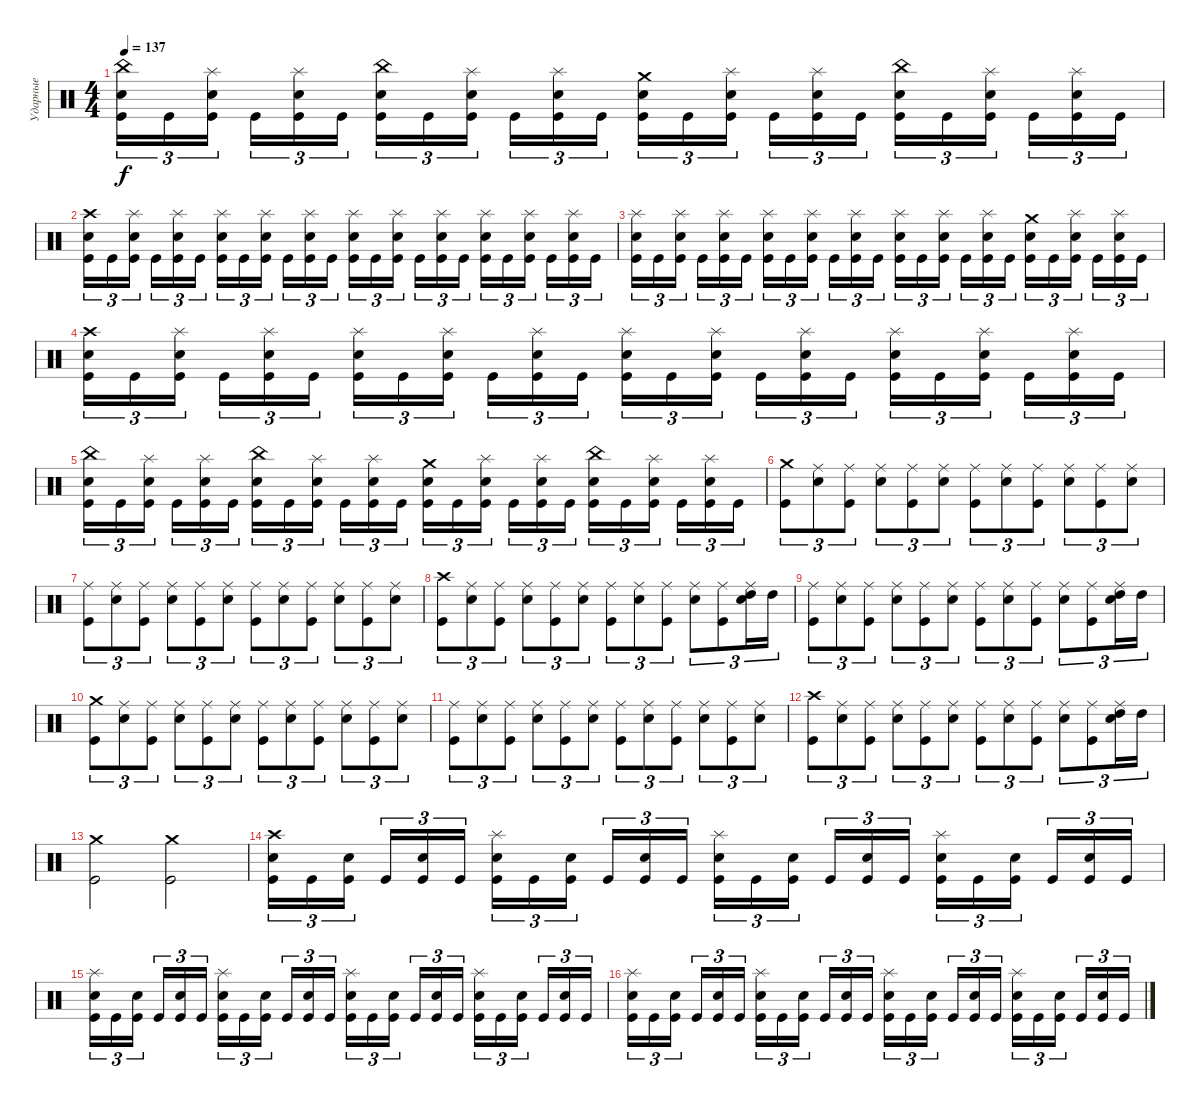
\track ("Ударные" "Ударные") {instrument percussion}
\staff {score}
\articulation defaults
\ts (4 4)
\tempo 137
\clef neutral
\ks c
("China (hit)" "Electric Snare (hit)" "Kick (hit)").16{tu (3 2) dy f} "Kick (hit)".16{tu (3 2)} ("Splash (hit)" "Electric Snare (hit)" "Kick (hit)").16{tu (3 2) beam splitsecondary} "Kick (hit)".16{tu (3 2)} ("Splash (hit)" "Electric Snare (hit)" "Kick (hit)").16{tu (3 2)} "Kick (hit)".16{tu (3 2)} ("China (hit)" "Electric Snare (hit)" "Kick (hit)").16{tu (3 2)} "Kick (hit)".16{tu (3 2)} ("Splash (hit)" "Electric Snare (hit)" "Kick (hit)").16{tu (3 2) beam splitsecondary} "Kick (hit)".16{tu (3 2)} ("Splash (hit)" "Electric Snare (hit)" "Kick (hit)").16{tu (3 2)} "Kick (hit)".16{tu (3 2)} ("Crash medium (hit)" "Electric Snare (hit)" "Kick (hit)").16{tu (3 2)} "Kick (hit)".16{tu (3 2)} ("Splash (hit)" "Electric Snare (hit)" "Kick (hit)").16{tu (3 2) beam splitsecondary} "Kick (hit)".16{tu (3 2)} ("Splash (hit)" "Electric Snare (hit)" "Kick (hit)").16{tu (3 2)} "Kick (hit)".16{tu (3 2)} ("China (hit)" "Electric Snare (hit)" "Kick (hit)").16{tu (3 2)} "Kick (hit)".16{tu (3 2)} ("Splash (hit)" "Electric Snare (hit)" "Kick (hit)").16{tu (3 2) beam splitsecondary} "Kick (hit)".16{tu (3 2)} ("Splash (hit)" "Electric Snare (hit)" "Kick (hit)").16{tu (3 2)} "Kick (hit)".16{tu (3 2)} |
("Crash high (hit)" "Electric Snare (hit)" "Kick (hit)").16{tu (3 2)} "Kick (hit)".16{tu (3 2)} ("Splash (hit)" "Electric Snare (hit)" "Kick (hit)").16{tu (3 2) beam splitsecondary} "Kick (hit)".16{tu (3 2)} ("Splash (hit)" "Electric Snare (hit)" "Kick (hit)").16{tu (3 2)} "Kick (hit)".16{tu (3 2)} ("Splash (hit)" "Electric Snare (hit)" "Kick (hit)").16{tu (3 2)} "Kick (hit)".16{tu (3 2)} ("Splash (hit)" "Electric Snare (hit)" "Kick (hit)").16{tu (3 2) beam splitsecondary} "Kick (hit)".16{tu (3 2)} ("Splash (hit)" "Electric Snare (hit)" "Kick (hit)").16{tu (3 2)} "Kick (hit)".16{tu (3 2)} ("Splash (hit)" "Electric Snare (hit)" "Kick (hit)").16{tu (3 2)} "Kick (hit)".16{tu (3 2)} ("Splash (hit)" "Electric Snare (hit)" "Kick (hit)").16{tu (3 2) beam splitsecondary} "Kick (hit)".16{tu (3 2)} ("Splash (hit)" "Electric Snare (hit)" "Kick (hit)").16{tu (3 2)} "Kick (hit)".16{tu (3 2)} ("Splash (hit)" "Electric Snare (hit)" "Kick (hit)").16{tu (3 2)} "Kick (hit)".16{tu (3 2)} ("Splash (hit)" "Electric Snare (hit)" "Kick (hit)").16{tu (3 2) beam splitsecondary} "Kick (hit)".16{tu (3 2)} ("Splash (hit)" "Electric Snare (hit)" "Kick (hit)").16{tu (3 2)} "Kick (hit)".16{tu (3 2)} |
("Splash (hit)" "Electric Snare (hit)" "Kick (hit)").16{tu (3 2)} "Kick (hit)".16{tu (3 2)} ("Splash (hit)" "Electric Snare (hit)" "Kick (hit)").16{tu (3 2) beam splitsecondary} "Kick (hit)".16{tu (3 2)} ("Splash (hit)" "Electric Snare (hit)" "Kick (hit)").16{tu (3 2)} "Kick (hit)".16{tu (3 2)} ("Splash (hit)" "Electric Snare (hit)" "Kick (hit)").16{tu (3 2)} "Kick (hit)".16{tu (3 2)} ("Splash (hit)" "Electric Snare (hit)" "Kick (hit)").16{tu (3 2) beam splitsecondary} "Kick (hit)".16{tu (3 2)} ("Splash (hit)" "Electric Snare (hit)" "Kick (hit)").16{tu (3 2)} "Kick (hit)".16{tu (3 2)} ("Splash (hit)" "Electric Snare (hit)" "Kick (hit)").16{tu (3 2)} "Kick (hit)".16{tu (3 2)} ("Splash (hit)" "Electric Snare (hit)" "Kick (hit)").16{tu (3 2) beam splitsecondary} "Kick (hit)".16{tu (3 2)} ("Splash (hit)" "Electric Snare (hit)" "Kick (hit)").16{tu (3 2)} "Kick (hit)".16{tu (3 2)} ("Crash medium (hit)" "Electric Snare (hit)" "Kick (hit)").16{tu (3 2)} "Kick (hit)".16{tu (3 2)} ("Splash (hit)" "Electric Snare (hit)" "Kick (hit)").16{tu (3 2) beam splitsecondary} "Kick (hit)".16{tu (3 2)} ("Splash (hit)" "Electric Snare (hit)" "Kick (hit)").16{tu (3 2)} "Kick (hit)".16{tu (3 2)} |
("Crash high (hit)" "Electric Snare (hit)" "Kick (hit)").16{tu (3 2)} "Kick (hit)".16{tu (3 2)} ("Splash (hit)" "Electric Snare (hit)" "Kick (hit)").16{tu (3 2) beam splitsecondary} "Kick (hit)".16{tu (3 2)} ("Splash (hit)" "Electric Snare (hit)" "Kick (hit)").16{tu (3 2)} "Kick (hit)".16{tu (3 2)} ("Splash (hit)" "Electric Snare (hit)" "Kick (hit)").16{tu (3 2)} "Kick (hit)".16{tu (3 2)} ("Splash (hit)" "Electric Snare (hit)" "Kick (hit)").16{tu (3 2) beam splitsecondary} "Kick (hit)".16{tu (3 2)} ("Splash (hit)" "Electric Snare (hit)" "Kick (hit)").16{tu (3 2)} "Kick (hit)".16{tu (3 2)} ("Splash (hit)" "Electric Snare (hit)" "Kick (hit)").16{tu (3 2)} "Kick (hit)".16{tu (3 2)} ("Splash (hit)" "Electric Snare (hit)" "Kick (hit)").16{tu (3 2) beam splitsecondary} "Kick (hit)".16{tu (3 2)} ("Splash (hit)" "Electric Snare (hit)" "Kick (hit)").16{tu (3 2)} "Kick (hit)".16{tu (3 2)} ("Splash (hit)" "Electric Snare (hit)" "Kick (hit)").16{tu (3 2)} "Kick (hit)".16{tu (3 2)} ("Splash (hit)" "Electric Snare (hit)" "Kick (hit)").16{tu (3 2) beam splitsecondary} "Kick (hit)".16{tu (3 2)} ("Splash (hit)" "Electric Snare (hit)" "Kick (hit)").16{tu (3 2)} "Kick (hit)".16{tu (3 2)} |
("China (hit)" "Electric Snare (hit)" "Kick (hit)").16{tu (3 2)} "Kick (hit)".16{tu (3 2)} ("Splash (hit)" "Electric Snare (hit)" "Kick (hit)").16{tu (3 2) beam splitsecondary} "Kick (hit)".16{tu (3 2)} ("Splash (hit)" "Electric Snare (hit)" "Kick (hit)").16{tu (3 2)} "Kick (hit)".16{tu (3 2)} ("China (hit)" "Electric Snare (hit)" "Kick (hit)").16{tu (3 2)} "Kick (hit)".16{tu (3 2)} ("Splash (hit)" "Electric Snare (hit)" "Kick (hit)").16{tu (3 2) beam splitsecondary} "Kick (hit)".16{tu (3 2)} ("Splash (hit)" "Electric Snare (hit)" "Kick (hit)").16{tu (3 2)} "Kick (hit)".16{tu (3 2)} ("Crash medium (hit)" "Electric Snare (hit)" "Kick (hit)").16{tu (3 2)} "Kick (hit)".16{tu (3 2)} ("Splash (hit)" "Electric Snare (hit)" "Kick (hit)").16{tu (3 2) beam splitsecondary} "Kick (hit)".16{tu (3 2)} ("Splash (hit)" "Electric Snare (hit)" "Kick (hit)").16{tu (3 2)} "Kick (hit)".16{tu (3 2)} ("China (hit)" "Electric Snare (hit)" "Kick (hit)").16{tu (3 2)} "Kick (hit)".16{tu (3 2)} ("Splash (hit)" "Electric Snare (hit)" "Kick (hit)").16{tu (3 2) beam splitsecondary} "Kick (hit)".16{tu (3 2)} ("Splash (hit)" "Electric Snare (hit)" "Kick (hit)").16{tu (3 2)} "Kick (hit)".16{tu (3 2)} |
("Crash medium (hit)" "Kick (hit)").8{tu (3 2)} ("Ride (middle)" "Electric Snare (hit)").8{tu (3 2)} ("Ride (middle)" "Kick (hit)").8{tu (3 2)} ("Ride (middle)" "Electric Snare (hit)").8{tu (3 2)} ("Ride (middle)" "Kick (hit)").8{tu (3 2)} ("Ride (middle)" "Electric Snare (hit)").8{tu (3 2)} ("Ride (middle)" "Kick (hit)").8{tu (3 2)} ("Ride (middle)" "Electric Snare (hit)").8{tu (3 2)} ("Ride (middle)" "Kick (hit)").8{tu (3 2)} ("Ride (middle)" "Electric Snare (hit)").8{tu (3 2)} ("Ride (middle)" "Kick (hit)").8{tu (3 2)} ("Ride (middle)" "Electric Snare (hit)").8{tu (3 2)} |
("Ride (middle)" "Kick (hit)").8{tu (3 2)} ("Ride (middle)" "Electric Snare (hit)").8{tu (3 2)} ("Ride (middle)" "Kick (hit)").8{tu (3 2)} ("Ride (middle)" "Electric Snare (hit)").8{tu (3 2)} ("Ride (middle)" "Kick (hit)").8{tu (3 2)} ("Ride (middle)" "Electric Snare (hit)").8{tu (3 2)} ("Ride (middle)" "Kick (hit)").8{tu (3 2)} ("Ride (middle)" "Electric Snare (hit)").8{tu (3 2)} ("Ride (middle)" "Kick (hit)").8{tu (3 2)} ("Ride (middle)" "Electric Snare (hit)").8{tu (3 2)} ("Ride (middle)" "Kick (hit)").8{tu (3 2)} ("Ride (middle)" "Electric Snare (hit)").8{tu (3 2)} |
("Crash high (hit)" "Kick (hit)").8{tu (3 2)} ("Ride (middle)" "Electric Snare (hit)").8{tu (3 2)} ("Ride (middle)" "Kick (hit)").8{tu (3 2)} ("Ride (middle)" "Electric Snare (hit)").8{tu (3 2)} ("Ride (middle)" "Kick (hit)").8{tu (3 2)} ("Ride (middle)" "Electric Snare (hit)").8{tu (3 2)} ("Ride (middle)" "Kick (hit)").8{tu (3 2)} ("Ride (middle)" "Electric Snare (hit)").8{tu (3 2)} ("Ride (middle)" "Kick (hit)").8{tu (3 2)} ("Ride (middle)" "Electric Snare (hit)").8{tu (3 2)} ("Ride (middle)" "Kick (hit)").8{tu (3 2)} ("Ride (middle)" "High Tom (hit)" "Electric Snare (hit)").16{tu (3 2)} "High Tom (hit)".16{tu (3 2)} |
("Ride (middle)" "Kick (hit)").8{tu (3 2)} ("Ride (middle)" "Electric Snare (hit)").8{tu (3 2)} ("Ride (middle)" "Kick (hit)").8{tu (3 2)} ("Ride (middle)" "Electric Snare (hit)").8{tu (3 2)} ("Ride (middle)" "Kick (hit)").8{tu (3 2)} ("Ride (middle)" "Electric Snare (hit)").8{tu (3 2)} ("Ride (middle)" "Kick (hit)").8{tu (3 2)} ("Ride (middle)" "Electric Snare (hit)").8{tu (3 2)} ("Ride (middle)" "Kick (hit)").8{tu (3 2)} ("Ride (middle)" "Electric Snare (hit)").8{tu (3 2)} ("Ride (middle)" "Kick (hit)").8{tu (3 2)} ("Ride (middle)" "High Tom (hit)" "Electric Snare (hit)").16{tu (3 2)} "High Tom (hit)".16{tu (3 2)} |
("Crash medium (hit)" "Kick (hit)").8{tu (3 2)} ("Ride (middle)" "Electric Snare (hit)").8{tu (3 2)} ("Ride (middle)" "Kick (hit)").8{tu (3 2)} ("Ride (middle)" "Electric Snare (hit)").8{tu (3 2)} ("Ride (middle)" "Kick (hit)").8{tu (3 2)} ("Ride (middle)" "Electric Snare (hit)").8{tu (3 2)} ("Ride (middle)" "Kick (hit)").8{tu (3 2)} ("Ride (middle)" "Electric Snare (hit)").8{tu (3 2)} ("Ride (middle)" "Kick (hit)").8{tu (3 2)} ("Ride (middle)" "Electric Snare (hit)").8{tu (3 2)} ("Ride (middle)" "Kick (hit)").8{tu (3 2)} ("Ride (middle)" "Electric Snare (hit)").8{tu (3 2)} |
("Ride (middle)" "Kick (hit)").8{tu (3 2)} ("Ride (middle)" "Electric Snare (hit)").8{tu (3 2)} ("Ride (middle)" "Kick (hit)").8{tu (3 2)} ("Ride (middle)" "Electric Snare (hit)").8{tu (3 2)} ("Ride (middle)" "Kick (hit)").8{tu (3 2)} ("Ride (middle)" "Electric Snare (hit)").8{tu (3 2)} ("Ride (middle)" "Kick (hit)").8{tu (3 2)} ("Ride (middle)" "Electric Snare (hit)").8{tu (3 2)} ("Ride (middle)" "Kick (hit)").8{tu (3 2)} ("Ride (middle)" "Electric Snare (hit)").8{tu (3 2)} ("Ride (middle)" "Kick (hit)").8{tu (3 2)} ("Ride (middle)" "Electric Snare (hit)").8{tu (3 2)} |
("Crash high (hit)" "Kick (hit)").8{tu (3 2)} ("Ride (middle)" "Electric Snare (hit)").8{tu (3 2)} ("Ride (middle)" "Kick (hit)").8{tu (3 2)} ("Ride (middle)" "Electric Snare (hit)").8{tu (3 2)} ("Ride (middle)" "Kick (hit)").8{tu (3 2)} ("Ride (middle)" "Electric Snare (hit)").8{tu (3 2)} ("Ride (middle)" "Kick (hit)").8{tu (3 2)} ("Ride (middle)" "Electric Snare (hit)").8{tu (3 2)} ("Ride (middle)" "Kick (hit)").8{tu (3 2)} ("Ride (middle)" "Electric Snare (hit)").8{tu (3 2)} ("Ride (middle)" "Kick (hit)").8{tu (3 2)} ("Ride (middle)" "High Tom (hit)" "Electric Snare (hit)").16{tu (3 2)} "High Tom (hit)".16{tu (3 2)} |
("Crash medium (hit)" "Kick (hit)").2 ("Crash medium (hit)" "Kick (hit)").2 |
("Crash high (hit)" "Electric Snare (hit)" "Kick (hit)").16{tu (3 2)} "Kick (hit)".16{tu (3 2)} ("Electric Snare (hit)" "Kick (hit)").16{tu (3 2) beam splitsecondary} "Kick (hit)".16{tu (3 2)} ("Electric Snare (hit)" "Kick (hit)").16{tu (3 2)} "Kick (hit)".16{tu (3 2)} ("Splash (hit)" "Electric Snare (hit)" "Kick (hit)").16{tu (3 2)} "Kick (hit)".16{tu (3 2)} ("Electric Snare (hit)" "Kick (hit)").16{tu (3 2) beam splitsecondary} "Kick (hit)".16{tu (3 2)} ("Electric Snare (hit)" "Kick (hit)").16{tu (3 2)} "Kick (hit)".16{tu (3 2)} ("Splash (hit)" "Electric Snare (hit)" "Kick (hit)").16{tu (3 2)} "Kick (hit)".16{tu (3 2)} ("Electric Snare (hit)" "Kick (hit)").16{tu (3 2) beam splitsecondary} "Kick (hit)".16{tu (3 2)} ("Electric Snare (hit)" "Kick (hit)").16{tu (3 2)} "Kick (hit)".16{tu (3 2)} ("Splash (hit)" "Electric Snare (hit)" "Kick (hit)").16{tu (3 2)} "Kick (hit)".16{tu (3 2)} ("Electric Snare (hit)" "Kick (hit)").16{tu (3 2) beam splitsecondary} "Kick (hit)".16{tu (3 2)} ("Electric Snare (hit)" "Kick (hit)").16{tu (3 2)} "Kick (hit)".16{tu (3 2)} |
("Splash (hit)" "Electric Snare (hit)" "Kick (hit)").16{tu (3 2)} "Kick (hit)".16{tu (3 2)} ("Electric Snare (hit)" "Kick (hit)").16{tu (3 2) beam splitsecondary} "Kick (hit)".16{tu (3 2)} ("Electric Snare (hit)" "Kick (hit)").16{tu (3 2)} "Kick (hit)".16{tu (3 2)} ("Splash (hit)" "Electric Snare (hit)" "Kick (hit)").16{tu (3 2)} "Kick (hit)".16{tu (3 2)} ("Electric Snare (hit)" "Kick (hit)").16{tu (3 2) beam splitsecondary} "Kick (hit)".16{tu (3 2)} ("Electric Snare (hit)" "Kick (hit)").16{tu (3 2)} "Kick (hit)".16{tu (3 2)} ("Splash (hit)" "Electric Snare (hit)" "Kick (hit)").16{tu (3 2)} "Kick (hit)".16{tu (3 2)} ("Electric Snare (hit)" "Kick (hit)").16{tu (3 2) beam splitsecondary} "Kick (hit)".16{tu (3 2)} ("Electric Snare (hit)" "Kick (hit)").16{tu (3 2)} "Kick (hit)".16{tu (3 2)} ("Splash (hit)" "Electric Snare (hit)" "Kick (hit)").16{tu (3 2)} "Kick (hit)".16{tu (3 2)} ("Electric Snare (hit)" "Kick (hit)").16{tu (3 2) beam splitsecondary} "Kick (hit)".16{tu (3 2)} ("Electric Snare (hit)" "Kick (hit)").16{tu (3 2)} "Kick (hit)".16{tu (3 2)} |
("Splash (hit)" "Electric Snare (hit)" "Kick (hit)").16{tu (3 2)} "Kick (hit)".16{tu (3 2)} ("Electric Snare (hit)" "Kick (hit)").16{tu (3 2) beam splitsecondary} "Kick (hit)".16{tu (3 2)} ("Electric Snare (hit)" "Kick (hit)").16{tu (3 2)} "Kick (hit)".16{tu (3 2)} ("Splash (hit)" "Electric Snare (hit)" "Kick (hit)").16{tu (3 2)} "Kick (hit)".16{tu (3 2)} ("Electric Snare (hit)" "Kick (hit)").16{tu (3 2) beam splitsecondary} "Kick (hit)".16{tu (3 2)} ("Electric Snare (hit)" "Kick (hit)").16{tu (3 2)} "Kick (hit)".16{tu (3 2)} ("Splash (hit)" "Electric Snare (hit)" "Kick (hit)").16{tu (3 2)} "Kick (hit)".16{tu (3 2)} ("Electric Snare (hit)" "Kick (hit)").16{tu (3 2) beam splitsecondary} "Kick (hit)".16{tu (3 2)} ("Electric Snare (hit)" "Kick (hit)").16{tu (3 2)} "Kick (hit)".16{tu (3 2)} ("Splash (hit)" "Electric Snare (hit)" "Kick (hit)").16{tu (3 2)} "Kick (hit)".16{tu (3 2)} ("Electric Snare (hit)" "Kick (hit)").16{tu (3 2) beam splitsecondary} "Kick (hit)".16{tu (3 2)} ("Electric Snare (hit)" "Kick (hit)").16{tu (3 2)} "Kick (hit)".16{tu (3 2)}
